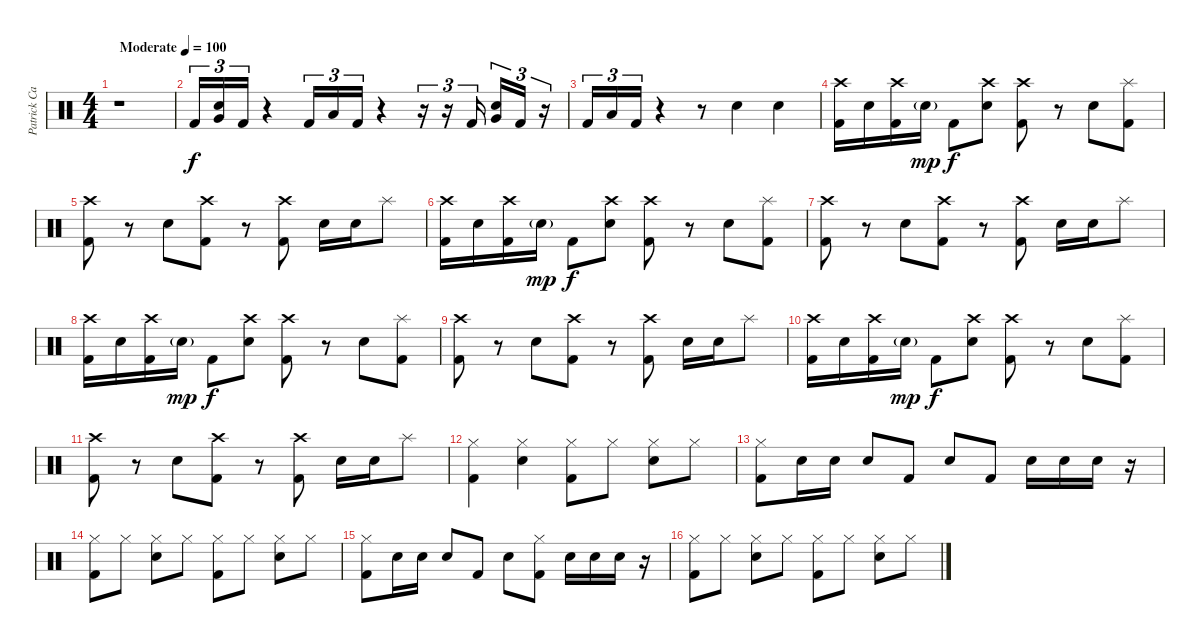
\track ("Patrick Carney" "Patrick Ca") {instrument percussion}
\staff {score}
\articulation defaults
\ts (4 4)
\tempo (100 "Moderate")
\clef neutral
\ks c
r.1{dy f} |
"Kick (hit) 2".16{tu (3 2)} ("Very Low Tom (hit)" "Snare (hit) 2").16{tu (3 2)} "Kick (hit) 2".16{tu (3 2)} r.4 "Kick (hit) 2".16{tu (3 2)} "Low Tom (hit)".16{tu (3 2)} "Kick (hit) 2".16{tu (3 2)} r.4 r.16{tu (3 2)} r.16{tu (3 2)} "Kick (hit) 2".16{tu (3 2) beam splitsecondary} ("Very Low Tom (hit)" "Snare (hit) 2").16{tu (3 2)} "Kick (hit) 2".16{tu (3 2)} r.16{tu (3 2)} |
"Kick (hit) 2".16{tu (3 2)} "Low Tom (hit)".16{tu (3 2)} "Kick (hit) 2".16{tu (3 2)} r.4 r.8 "Snare (hit) 2".4 "Snare (hit) 2".4 |
("Crash high (hit)" "Kick (hit) 2").16 "Snare (hit) 2".16 ("Crash high (hit)" "Kick (hit) 2").16 "Snare (hit) 2"{g}.16{dy mp} "Kick (hit) 2".8{dy f} ("Crash high (hit)" "Snare (hit) 2").8 ("Crash high (hit)" "Kick (hit) 2").8 r.8 "Snare (hit) 2".8 ("Splash (hit)" "Kick (hit) 2").8 |
("Crash high (hit)" "Kick (hit) 2").8 r.8 "Snare (hit) 2".8 ("Crash high (hit)" "Kick (hit) 2").8 r.8 ("Crash high (hit)" "Kick (hit) 2").8 "Snare (hit) 2".16 "Snare (hit) 2".16 "Splash (hit)".8 |
("Crash high (hit)" "Kick (hit) 2").16 "Snare (hit) 2".16 ("Crash high (hit)" "Kick (hit) 2").16 "Snare (hit) 2"{g}.16{dy mp} "Kick (hit) 2".8{dy f} ("Crash high (hit)" "Snare (hit) 2").8 ("Crash high (hit)" "Kick (hit) 2").8 r.8 "Snare (hit) 2".8 ("Splash (hit)" "Kick (hit) 2").8 |
("Crash high (hit)" "Kick (hit) 2").8 r.8 "Snare (hit) 2".8 ("Crash high (hit)" "Kick (hit) 2").8 r.8 ("Crash high (hit)" "Kick (hit) 2").8 "Snare (hit) 2".16 "Snare (hit) 2".16 "Splash (hit)".8 |
("Crash high (hit)" "Kick (hit) 2").16 "Snare (hit) 2".16 ("Crash high (hit)" "Kick (hit) 2").16 "Snare (hit) 2"{g}.16{dy mp} "Kick (hit) 2".8{dy f} ("Crash high (hit)" "Snare (hit) 2").8 ("Crash high (hit)" "Kick (hit) 2").8 r.8 "Snare (hit) 2".8 ("Splash (hit)" "Kick (hit) 2").8 |
("Crash high (hit)" "Kick (hit) 2").8 r.8 "Snare (hit) 2".8 ("Crash high (hit)" "Kick (hit) 2").8 r.8 ("Crash high (hit)" "Kick (hit) 2").8 "Snare (hit) 2".16 "Snare (hit) 2".16 "Splash (hit)".8 |
("Crash high (hit)" "Kick (hit) 2").16 "Snare (hit) 2".16 ("Crash high (hit)" "Kick (hit) 2").16 "Snare (hit) 2"{g}.16{dy mp} "Kick (hit) 2".8{dy f} ("Crash high (hit)" "Snare (hit) 2").8 ("Crash high (hit)" "Kick (hit) 2").8 r.8 "Snare (hit) 2".8 ("Splash (hit)" "Kick (hit) 2").8 |
("Crash high (hit)" "Kick (hit) 2").8 r.8 "Snare (hit) 2".8 ("Crash high (hit)" "Kick (hit) 2").8 r.8 ("Crash high (hit)" "Kick (hit) 2").8 "Snare (hit) 2".16 "Snare (hit) 2".16 "Splash (hit)".8 |
("Hi-Hat (closed)" "Kick (hit) 2").4 ("Hi-Hat (closed)" "Snare (hit) 2").4 ("Hi-Hat (closed)" "Kick (hit) 2").8 "Hi-Hat (closed)".8 ("Hi-Hat (closed)" "Snare (hit) 2").8 "Hi-Hat (closed)".8 |
("Hi-Hat (closed)" "Kick (hit) 2").8 "Snare (hit) 2".16 "Snare (hit) 2".16 "Snare (hit) 2".8 "Kick (hit) 2".8 "Snare (hit) 2".8 "Kick (hit) 2".8 "Snare (hit) 2".16 "Snare (hit) 2".16 "Snare (hit) 2".16 r.16 |
("Hi-Hat (closed)" "Kick (hit) 2").8 "Hi-Hat (closed)".8 ("Hi-Hat (closed)" "Snare (hit) 2").8 "Hi-Hat (closed)".8 ("Hi-Hat (closed)" "Kick (hit) 2").8 "Hi-Hat (closed)".8 ("Hi-Hat (closed)" "Snare (hit) 2").8 "Hi-Hat (closed)".8 |
("Hi-Hat (closed)" "Kick (hit) 2").8 "Snare (hit) 2".16 "Snare (hit) 2".16 "Snare (hit) 2".8 "Kick (hit) 2".8 "Snare (hit) 2".8 ("Hi-Hat (closed)" "Kick (hit) 2").8 "Snare (hit) 2".16 "Snare (hit) 2".16 "Snare (hit) 2".16 r.16 |
("Hi-Hat (closed)" "Kick (hit) 2").8 "Hi-Hat (closed)".8 ("Hi-Hat (closed)" "Snare (hit) 2").8 "Hi-Hat (closed)".8 ("Hi-Hat (closed)" "Kick (hit) 2").8 "Hi-Hat (closed)".8 ("Hi-Hat (closed)" "Snare (hit) 2").8 "Hi-Hat (closed)".8
